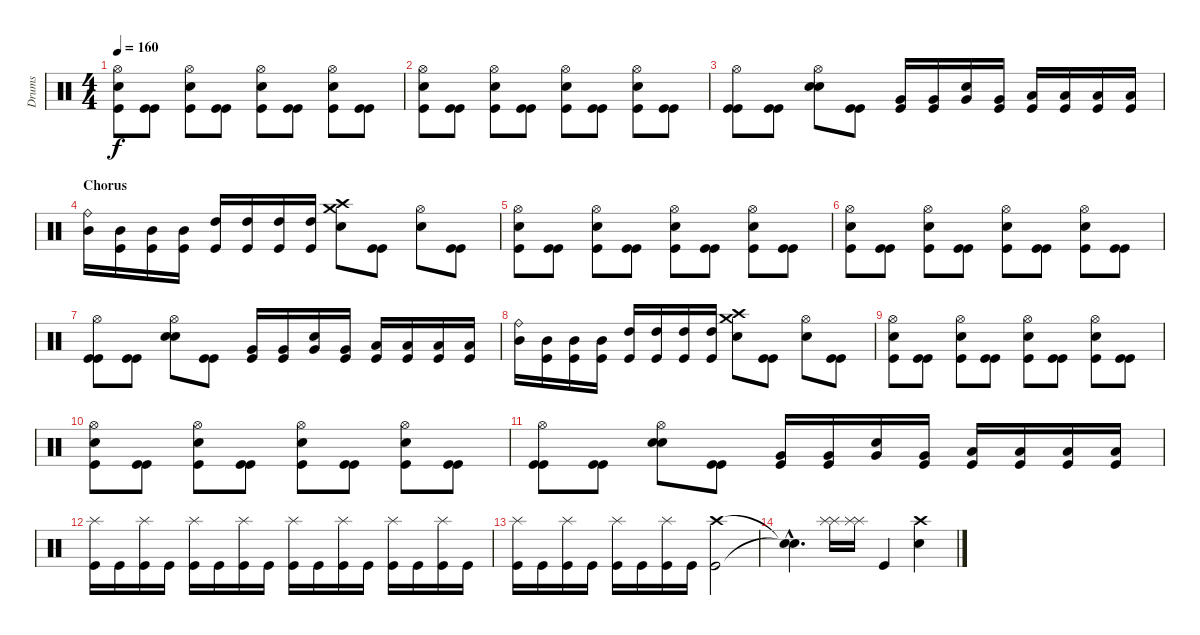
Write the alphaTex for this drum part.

\track ("Drums" "Drums") {instrument percussion}
\staff {score}
\articulation defaults
\ts (4 4)
\tempo 160
\clef neutral
\ks c
("Hi-Hat (open)" "Kick (hit)" "Snare (hit) 2").8{dy f} ("Kick (hit)" "Kick (hit)").8 ("Hi-Hat (open)" "Snare (hit) 2" "Kick (hit)").8 ("Kick (hit)" "Kick (hit)").8 ("Hi-Hat (open)" "Kick (hit)" "Snare (hit) 2").8 ("Kick (hit)" "Kick (hit)").8 ("Hi-Hat (open)" "Snare (hit) 2" "Kick (hit)").8 ("Kick (hit)" "Kick (hit)").8 |
("Hi-Hat (open)" "Kick (hit)" "Snare (hit) 2").8 ("Kick (hit)" "Kick (hit)").8 ("Hi-Hat (open)" "Snare (hit) 2" "Kick (hit)").8 ("Kick (hit)" "Kick (hit)").8 ("Hi-Hat (open)" "Kick (hit)" "Snare (hit) 2").8 ("Kick (hit)" "Kick (hit)").8 ("Hi-Hat (open)" "Snare (hit) 2" "Kick (hit)").8 ("Kick (hit)" "Kick (hit)").8 |
("Hi-Hat (open)" "Kick (hit)" "Kick (hit)").8 ("Kick (hit)" "Kick (hit)").8 ("Hi-Hat (open)" "Snare (hit) 2" "Snare (hit) 2").8 ("Kick (hit)" "Kick (hit)").8 ("Very Low Tom (hit)" "Kick (hit)").16 ("Very Low Tom (hit)" "Kick (hit)").16 ("Very Low Tom (hit)" "Snare (hit) 2").16 ("Very Low Tom (hit)" "Kick (hit)").16 ("Low Tom (hit)" "Kick (hit)").16 ("Low Tom (hit)" "Kick (hit)").16 ("Low Tom (hit)" "Kick (hit)").16 ("Low Tom (hit)" "Kick (hit)").16 |
\section ("" "Chorus")
("Mid Tom (hit)" "Ride (bell)").16 ("Mid Tom (hit)" "Kick (hit)").16 ("Mid Tom (hit)" "Kick (hit)").16 ("Mid Tom (hit)" "Kick (hit)").16 ("High Tom (hit)" "Kick (hit)").16 ("High Tom (hit)" "Kick (hit)").16 ("High Tom (hit)" "Kick (hit)").16 ("High Tom (hit)" "Kick (hit)").16 ("Crash high (hit)" "Snare (hit) 2" "Crash medium (hit)").8 ("Kick (hit)" "Kick (hit)").8 ("Hi-Hat (open)" "Snare (hit) 2").8 ("Kick (hit)" "Kick (hit)").8 |
("Hi-Hat (open)" "Kick (hit)" "Snare (hit) 2").8 ("Kick (hit)" "Kick (hit)").8 ("Hi-Hat (open)" "Snare (hit) 2" "Kick (hit)").8 ("Kick (hit)" "Kick (hit)").8 ("Hi-Hat (open)" "Kick (hit)" "Snare (hit) 2").8 ("Kick (hit)" "Kick (hit)").8 ("Hi-Hat (open)" "Snare (hit) 2" "Kick (hit)").8 ("Kick (hit)" "Kick (hit)").8 |
("Hi-Hat (open)" "Kick (hit)" "Snare (hit) 2").8 ("Kick (hit)" "Kick (hit)").8 ("Hi-Hat (open)" "Snare (hit) 2" "Kick (hit)").8 ("Kick (hit)" "Kick (hit)").8 ("Hi-Hat (open)" "Kick (hit)" "Snare (hit) 2").8 ("Kick (hit)" "Kick (hit)").8 ("Hi-Hat (open)" "Snare (hit) 2" "Kick (hit)").8 ("Kick (hit)" "Kick (hit)").8 |
("Hi-Hat (open)" "Kick (hit)" "Kick (hit)").8 ("Kick (hit)" "Kick (hit)").8 ("Hi-Hat (open)" "Snare (hit) 2" "Snare (hit) 2").8 ("Kick (hit)" "Kick (hit)").8 ("Very Low Tom (hit)" "Kick (hit)").16 ("Very Low Tom (hit)" "Kick (hit)").16 ("Very Low Tom (hit)" "Snare (hit) 2").16 ("Very Low Tom (hit)" "Kick (hit)").16 ("Low Tom (hit)" "Kick (hit)").16 ("Low Tom (hit)" "Kick (hit)").16 ("Low Tom (hit)" "Kick (hit)").16 ("Low Tom (hit)" "Kick (hit)").16 |
("Mid Tom (hit)" "Ride (bell)").16 ("Mid Tom (hit)" "Kick (hit)").16 ("Mid Tom (hit)" "Kick (hit)").16 ("Mid Tom (hit)" "Kick (hit)").16 ("High Tom (hit)" "Kick (hit)").16 ("High Tom (hit)" "Kick (hit)").16 ("High Tom (hit)" "Kick (hit)").16 ("High Tom (hit)" "Kick (hit)").16 ("Crash high (hit)" "Snare (hit) 2" "Crash medium (hit)").8 ("Kick (hit)" "Kick (hit)").8 ("Hi-Hat (open)" "Snare (hit) 2").8 ("Kick (hit)" "Kick (hit)").8 |
("Hi-Hat (open)" "Kick (hit)" "Snare (hit) 2").8 ("Kick (hit)" "Kick (hit)").8 ("Hi-Hat (open)" "Snare (hit) 2" "Kick (hit)").8 ("Kick (hit)" "Kick (hit)").8 ("Hi-Hat (open)" "Kick (hit)" "Snare (hit) 2").8 ("Kick (hit)" "Kick (hit)").8 ("Hi-Hat (open)" "Snare (hit) 2" "Kick (hit)").8 ("Kick (hit)" "Kick (hit)").8 |
("Hi-Hat (open)" "Kick (hit)" "Snare (hit) 2").8 ("Kick (hit)" "Kick (hit)").8 ("Hi-Hat (open)" "Snare (hit) 2" "Kick (hit)").8 ("Kick (hit)" "Kick (hit)").8 ("Hi-Hat (open)" "Kick (hit)" "Snare (hit) 2").8 ("Kick (hit)" "Kick (hit)").8 ("Hi-Hat (open)" "Snare (hit) 2" "Kick (hit)").8 ("Kick (hit)" "Kick (hit)").8 |
("Hi-Hat (open)" "Kick (hit)" "Kick (hit)").8 ("Kick (hit)" "Kick (hit)").8 ("Hi-Hat (open)" "Snare (hit) 2" "Snare (hit) 2").8 ("Kick (hit)" "Kick (hit)").8 ("Very Low Tom (hit)" "Kick (hit)").16 ("Very Low Tom (hit)" "Kick (hit)").16 ("Very Low Tom (hit)" "Snare (hit) 2").16 ("Very Low Tom (hit)" "Kick (hit)").16 ("Low Tom (hit)" "Kick (hit)").16 ("Low Tom (hit)" "Kick (hit)").16 ("Low Tom (hit)" "Kick (hit)").16 ("Low Tom (hit)" "Kick (hit)").16 |
("Kick (hit)" "Splash (hit)").16 "Kick (hit)".16 ("Kick (hit)" "Splash (hit)").16 "Kick (hit)".16 ("Kick (hit)" "Splash (hit)").16 "Kick (hit)".16 ("Kick (hit)" "Splash (hit)").16 "Kick (hit)".16 ("Kick (hit)" "Splash (hit)").16 "Kick (hit)".16 ("Kick (hit)" "Splash (hit)").16 "Kick (hit)".16 ("Kick (hit)" "Splash (hit)").16 "Kick (hit)".16 ("Kick (hit)" "Splash (hit)").16 "Kick (hit)".16 |
("Kick (hit)" "Splash (hit)").16 "Kick (hit)".16 ("Kick (hit)" "Splash (hit)").16 "Kick (hit)".16 ("Kick (hit)" "Splash (hit)").16 "Kick (hit)".16 ("Kick (hit)" "Splash (hit)").16 "Kick (hit)".16 ("Kick (hit)" "Crash high (hit)").2 |
("Snare (hit)"{hac t} "Snare (hit)"{hac t}).4{d} ("Splash (hit)" "Splash (hit)").16 ("Splash (hit)" "Splash (hit)").16 "Kick (hit)".4 ("Crash high (hit)" "Snare (hit) 2").4
